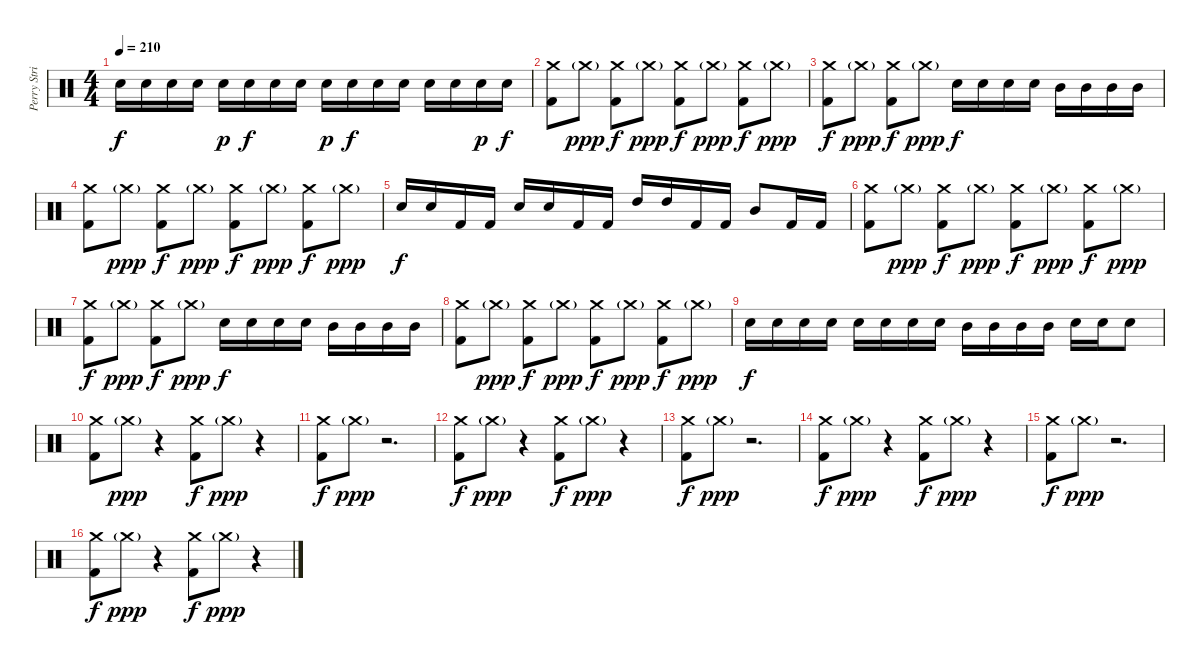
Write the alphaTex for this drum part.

\track ("Perry Strickland" "Perry Stri") {instrument percussion}
\staff {score}
\articulation defaults
\ts (4 4)
\tempo 210
\clef neutral
\ks c "Electric Snare (hit)".16{dy f} "Electric Snare (hit)".16 "Electric Snare (hit)".16 "Electric Snare (hit)".16 "Electric Snare (hit)".16{dy p} "Electric Snare (hit)".16{dy f} "Electric Snare (hit)".16 "Electric Snare (hit)".16 "Electric Snare (hit)".16{dy p} "Electric Snare (hit)".16{dy f} "Electric Snare (hit)".16 "Electric Snare (hit)".16 "Electric Snare (hit)".16 "Electric Snare (hit)".16 "Electric Snare (hit)".16{dy p} "Electric Snare (hit)".16{dy f}
|
("Crash medium (hit)" "Kick (hit) 2").8 "Crash medium (hit)"{g}.8{dy ppp} ("Crash medium (hit)" "Kick (hit) 2").8{dy f} "Crash medium (hit)"{g}.8{dy ppp} ("Crash medium (hit)" "Kick (hit) 2").8{dy f} "Crash medium (hit)"{g}.8{dy ppp} ("Crash medium (hit)" "Kick (hit) 2").8{dy f} "Crash medium (hit)"{g}.8{dy ppp} |
("Crash medium (hit)" "Kick (hit) 2").8{dy f} "Crash medium (hit)"{g}.8{dy ppp} ("Crash medium (hit)" "Kick (hit) 2").8{dy f} "Crash medium (hit)"{g}.8{dy ppp} "Electric Snare (hit)".16{dy f} "Electric Snare (hit)".16 "Electric Snare (hit)".16 "Electric Snare (hit)".16 "Mid Tom (hit)".16 "Mid Tom (hit)".16 "Mid Tom (hit)".16 "Mid Tom (hit)".16 |
("Crash medium (hit)" "Kick (hit) 2").8 "Crash medium (hit)"{g}.8{dy ppp} ("Crash medium (hit)" "Kick (hit) 2").8{dy f} "Crash medium (hit)"{g}.8{dy ppp} ("Crash medium (hit)" "Kick (hit) 2").8{dy f} "Crash medium (hit)"{g}.8{dy ppp} ("Crash medium (hit)" "Kick (hit) 2").8{dy f} "Crash medium (hit)"{g}.8{dy ppp} |
"Electric Snare (hit)".16{dy f} "Electric Snare (hit)".16 "Kick (hit) 2".16 "Kick (hit) 2".16 "Electric Snare (hit)".16 "Electric Snare (hit)".16 "Kick (hit) 2".16 "Kick (hit) 2".16 "High Tom (hit)".16 "High Tom (hit)".16 "Kick (hit) 2".16 "Kick (hit) 2".16 "Mid Tom (hit)".8 "Kick (hit) 2".16 "Kick (hit) 2".16 |
("Crash medium (hit)" "Kick (hit) 2").8 "Crash medium (hit)"{g}.8{dy ppp} ("Crash medium (hit)" "Kick (hit) 2").8{dy f} "Crash medium (hit)"{g}.8{dy ppp} ("Crash medium (hit)" "Kick (hit) 2").8{dy f} "Crash medium (hit)"{g}.8{dy ppp} ("Crash medium (hit)" "Kick (hit) 2").8{dy f} "Crash medium (hit)"{g}.8{dy ppp} |
("Crash medium (hit)" "Kick (hit) 2").8{dy f} "Crash medium (hit)"{g}.8{dy ppp} ("Crash medium (hit)" "Kick (hit) 2").8{dy f} "Crash medium (hit)"{g}.8{dy ppp} "Electric Snare (hit)".16{dy f} "Electric Snare (hit)".16 "Electric Snare (hit)".16 "Electric Snare (hit)".16 "Mid Tom (hit)".16 "Mid Tom (hit)".16 "Mid Tom (hit)".16 "Mid Tom (hit)".16 |
("Crash medium (hit)" "Kick (hit) 2").8 "Crash medium (hit)"{g}.8{dy ppp} ("Crash medium (hit)" "Kick (hit) 2").8{dy f} "Crash medium (hit)"{g}.8{dy ppp} ("Crash medium (hit)" "Kick (hit) 2").8{dy f} "Crash medium (hit)"{g}.8{dy ppp} ("Crash medium (hit)" "Kick (hit) 2").8{dy f} "Crash medium (hit)"{g}.8{dy ppp} |
"Electric Snare (hit)".16{dy f} "Electric Snare (hit)".16 "Electric Snare (hit)".16 "Electric Snare (hit)".16 "Electric Snare (hit)".16 "Electric Snare (hit)".16 "Electric Snare (hit)".16 "Electric Snare (hit)".16 "Mid Tom (hit)".16 "Mid Tom (hit)".16 "Mid Tom (hit)".16 "Mid Tom (hit)".16 "Electric Snare (hit)".16 "Electric Snare (hit)".16 "Electric Snare (hit)".8 |
("Crash medium (hit)" "Kick (hit) 2").8 "Crash medium (hit)"{g}.8{dy ppp} r.4 ("Crash medium (hit)" "Kick (hit) 2").8{dy f} "Crash medium (hit)"{g}.8{dy ppp} r.4 |
("Crash medium (hit)" "Kick (hit) 2").8{dy f} "Crash medium (hit)"{g}.8{dy ppp} r.2{d} |
("Crash medium (hit)" "Kick (hit) 2").8{dy f} "Crash medium (hit)"{g}.8{dy ppp} r.4 ("Crash medium (hit)" "Kick (hit) 2").8{dy f} "Crash medium (hit)"{g}.8{dy ppp} r.4 |
("Crash medium (hit)" "Kick (hit) 2").8{dy f} "Crash medium (hit)"{g}.8{dy ppp} r.2{d} |
("Crash medium (hit)" "Kick (hit) 2").8{dy f} "Crash medium (hit)"{g}.8{dy ppp} r.4 ("Crash medium (hit)" "Kick (hit) 2").8{dy f} "Crash medium (hit)"{g}.8{dy ppp} r.4 |
("Crash medium (hit)" "Kick (hit) 2").8{dy f} "Crash medium (hit)"{g}.8{dy ppp} r.2{d} |
("Crash medium (hit)" "Kick (hit) 2").8{dy f} "Crash medium (hit)"{g}.8{dy ppp} r.4 ("Crash medium (hit)" "Kick (hit) 2").8{dy f} "Crash medium (hit)"{g}.8{dy ppp} r.4
